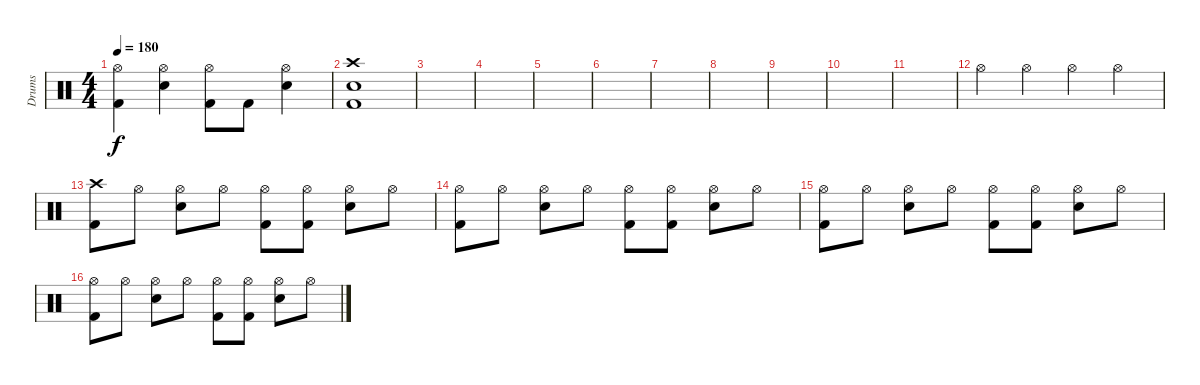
\track ("Drums" "Drums") {instrument percussion}
\staff {score}
\articulation defaults
\ts (4 4)
\tempo 180
\clef neutral
\ks c
("Hi-Hat (open)" "Kick (hit) 2").4{dy f} ("Hi-Hat (open)" "Snare (hit) 2").4 ("Hi-Hat (open)" "Kick (hit) 2").8 "Kick (hit) 2".8 ("Hi-Hat (open)" "Snare (hit) 2").4 |
("Crash high (hit)" "Snare (hit) 2" "Kick (hit) 2").1 |
|
|
|
|
|
|
|
|
|
"Hi-Hat (open)".4 "Hi-Hat (open)".4 "Hi-Hat (open)".4 "Hi-Hat (open)".4 |
("Crash high (hit)" "Kick (hit) 2").8 "Hi-Hat (open)".8 ("Hi-Hat (open)" "Snare (hit) 2").8 "Hi-Hat (open)".8 ("Hi-Hat (open)" "Kick (hit) 2").8 ("Hi-Hat (open)" "Kick (hit) 2").8 ("Hi-Hat (open)" "Snare (hit) 2").8 "Hi-Hat (open)".8 |
("Hi-Hat (open)" "Kick (hit) 2").8 "Hi-Hat (open)".8 ("Hi-Hat (open)" "Snare (hit) 2").8 "Hi-Hat (open)".8 ("Hi-Hat (open)" "Kick (hit) 2").8 ("Hi-Hat (open)" "Kick (hit) 2").8 ("Hi-Hat (open)" "Snare (hit) 2").8 "Hi-Hat (open)".8 |
("Hi-Hat (open)" "Kick (hit) 2").8 "Hi-Hat (open)".8 ("Hi-Hat (open)" "Snare (hit) 2").8 "Hi-Hat (open)".8 ("Hi-Hat (open)" "Kick (hit) 2").8 ("Hi-Hat (open)" "Kick (hit) 2").8 ("Hi-Hat (open)" "Snare (hit) 2").8 "Hi-Hat (open)".8 |
("Hi-Hat (open)" "Kick (hit) 2").8 "Hi-Hat (open)".8 ("Hi-Hat (open)" "Snare (hit) 2").8 "Hi-Hat (open)".8 ("Hi-Hat (open)" "Kick (hit) 2").8 ("Hi-Hat (open)" "Kick (hit) 2").8 ("Hi-Hat (open)" "Snare (hit) 2").8 "Hi-Hat (open)".8
